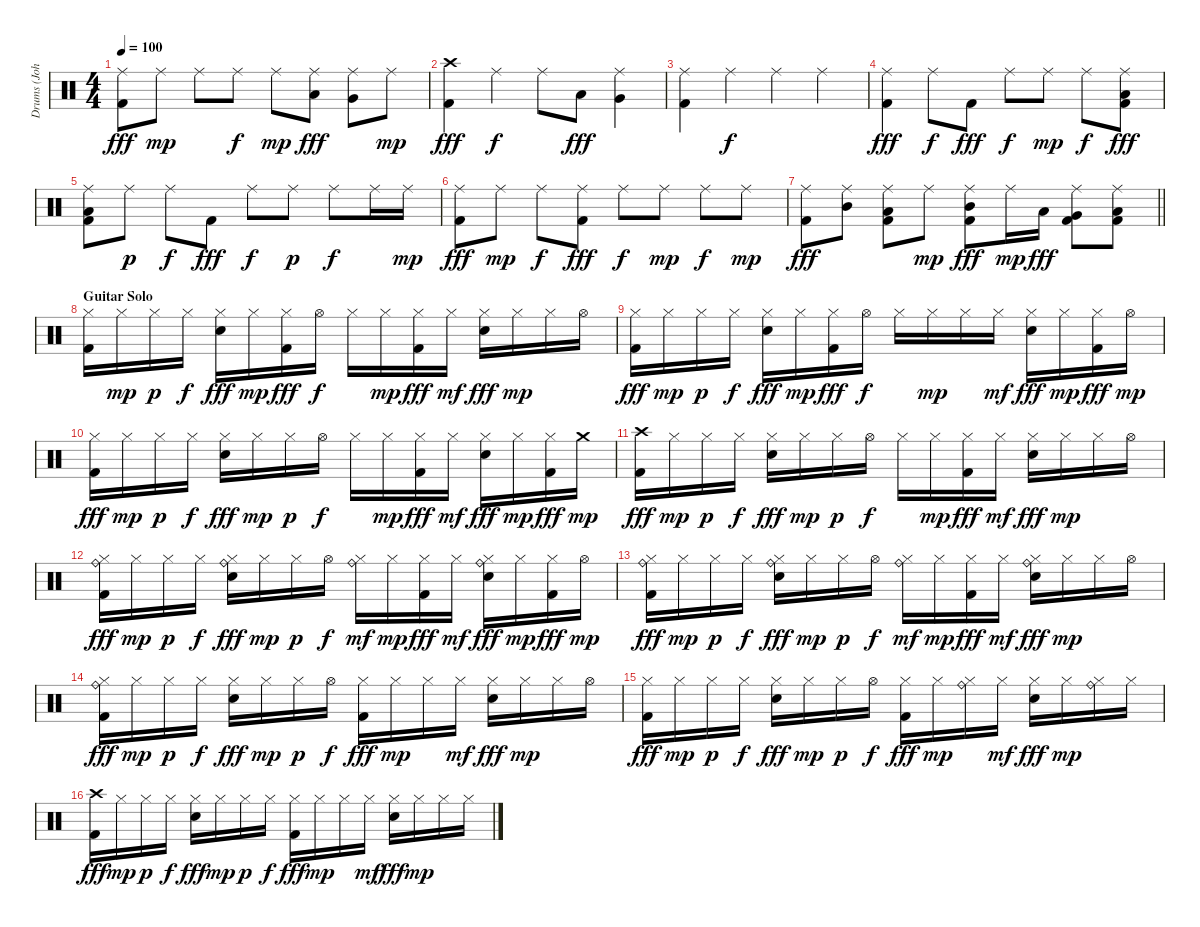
\track ("Drums (John Siomos)" "Drums (Joh") {instrument percussion}
\staff {score}
\articulation defaults
\ts (4 4)
\tempo 100
\clef neutral
\ks c
("Ride (middle)" "Kick (hit) 2").8{dy fff} "Ride (middle)".8{dy mp} "Ride (middle)".8 "Ride (middle)".8{dy f} "Ride (middle)".8{dy mp} ("Ride (middle)" "Low Tom (hit)").8{dy fff} ("Ride (middle)" "Very Low Tom (hit)").8 "Ride (middle)".8{dy mp} |
("Crash high (hit)" "Kick (hit) 2").4{dy fff} "Ride (middle)".4{dy f} "Ride (middle)".8 "Low Tom (hit)".8{dy fff} ("Ride (middle)" "Very Low Tom (hit)").4 |
("Ride (middle)" "Kick (hit) 2").4 "Ride (middle)".4{dy f} "Ride (middle)".4 "Ride (middle)".4 |
("Ride (middle)" "Kick (hit) 2").4{dy fff} "Ride (middle)".8{dy f} "Kick (hit) 2".8{dy fff} "Ride (middle)".8{dy f} "Ride (middle)".8{dy mp} "Ride (middle)".8{dy f} ("Ride (middle)" "Low Tom (hit)" "Kick (hit) 2").8{dy fff} |
("Ride (middle)" "Low Tom (hit)" "Kick (hit) 2").8 "Ride (middle)".8{dy p} "Ride (middle)".8{dy f} "Kick (hit) 2".8{dy fff} "Ride (middle)".8{dy f} "Ride (middle)".8{dy p} "Ride (middle)".8{dy f} "Ride (middle)".16 "Ride (middle)".16{dy mp} |
("Ride (middle)" "Kick (hit) 2").8{dy fff} "Ride (middle)".8{dy mp} "Ride (middle)".8{dy f} ("Ride (middle)" "Kick (hit) 2").8{dy fff} "Ride (middle)".8{dy f} "Ride (middle)".8{dy mp} "Ride (middle)".8{dy f} "Ride (middle)".8{dy mp} |
\barLineRight lightlight
("Ride (middle)" "Kick (hit) 2").8{dy fff} ("Ride (middle)" "Mid Tom (hit)").8 ("Ride (middle)" "Low Tom (hit)" "Kick (hit) 2").8 "Ride (middle)".8{dy mp} ("Ride (middle)" "Mid Tom (hit)" "Kick (hit) 2").8{dy fff} "Ride (middle)".16{dy mp} "Low Tom (hit)".16{dy fff} ("Ride (middle)" "Very Low Tom (hit)" "Kick (hit) 2").8 ("Ride (middle)" "Low Floor Tom (hit)" "Kick (hit) 2").8 |
\section ("" "Guitar Solo")
("Hi-Hat (closed)" "Kick (hit) 2").16 "Hi-Hat (closed)".16{dy mp} "Hi-Hat (closed)".16{dy p} "Hi-Hat (closed)".16{dy f} ("Hi-Hat (closed)" "Snare (hit) 2").16{dy fff} "Hi-Hat (closed)".16{dy mp} ("Hi-Hat (closed)" "Kick (hit) 2").16{dy fff} "Hi-Hat (open)".16{dy f} "Hi-Hat (closed)".16 "Hi-Hat (closed)".16{dy mp} ("Hi-Hat (closed)" "Kick (hit) 2").16{dy fff} "Hi-Hat (closed)".16{dy mf} ("Hi-Hat (closed)" "Snare (hit) 2").16{dy fff} "Hi-Hat (closed)".16{dy mp} "Hi-Hat (closed)".16 "Hi-Hat (open)".16 |
("Hi-Hat (closed)" "Kick (hit) 2").16{dy fff} "Hi-Hat (closed)".16{dy mp} "Hi-Hat (closed)".16{dy p} "Hi-Hat (closed)".16{dy f} ("Hi-Hat (closed)" "Snare (hit) 2").16{dy fff} "Hi-Hat (closed)".16{dy mp} ("Hi-Hat (closed)" "Kick (hit) 2").16{dy fff} "Hi-Hat (open)".16{dy f} "Hi-Hat (closed)".16 "Hi-Hat (closed)".16{dy mp} "Hi-Hat (closed)".16 "Hi-Hat (closed)".16{dy mf} ("Hi-Hat (closed)" "Snare (hit) 2").16{dy fff} "Hi-Hat (closed)".16{dy mp} ("Hi-Hat (closed)" "Kick (hit) 2").16{dy fff} "Hi-Hat (open)".16{dy mp} |
("Hi-Hat (closed)" "Kick (hit) 2").16{dy fff} "Hi-Hat (closed)".16{dy mp} "Hi-Hat (closed)".16{dy p} "Hi-Hat (closed)".16{dy f} ("Hi-Hat (closed)" "Snare (hit) 2").16{dy fff} "Hi-Hat (closed)".16{dy mp} "Hi-Hat (closed)".16{dy p} "Hi-Hat (open)".16{dy f} "Hi-Hat (closed)".16 "Hi-Hat (closed)".16{dy mp} ("Hi-Hat (closed)" "Kick (hit) 2").16{dy fff} "Hi-Hat (closed)".16{dy mf} ("Hi-Hat (closed)" "Snare (hit) 2").16{dy fff} "Hi-Hat (closed)".16{dy mp} ("Hi-Hat (closed)" "Kick (hit) 2").16{dy fff} "Crash medium (hit)".16{dy mp} |
("Crash high (hit)" "Kick (hit) 2").16{dy fff} "Hi-Hat (closed)".16{dy mp} "Hi-Hat (closed)".16{dy p} "Hi-Hat (closed)".16{dy f} ("Hi-Hat (closed)" "Snare (hit) 2").16{dy fff} "Hi-Hat (closed)".16{dy mp} "Hi-Hat (closed)".16{dy p} "Hi-Hat (open)".16{dy f} "Hi-Hat (closed)".16 "Hi-Hat (closed)".16{dy mp} ("Hi-Hat (closed)" "Kick (hit) 2").16{dy fff} "Hi-Hat (closed)".16{dy mf} ("Hi-Hat (closed)" "Snare (hit) 2").16{dy fff} "Hi-Hat (closed)".16{dy mp} "Hi-Hat (closed)".16 "Hi-Hat (open)".16 |
("Ride (bell)" "Hi-Hat (closed)" "Kick (hit) 2").16{dy fff} "Hi-Hat (closed)".16{dy mp} "Hi-Hat (closed)".16{dy p} "Hi-Hat (closed)".16{dy f} ("Ride (bell)" "Hi-Hat (closed)" "Snare (hit) 2").16{dy fff} "Hi-Hat (closed)".16{dy mp} "Hi-Hat (closed)".16{dy p} "Hi-Hat (open)".16{dy f} ("Ride (bell)" "Hi-Hat (closed)").16{dy mf} "Hi-Hat (closed)".16{dy mp} ("Hi-Hat (closed)" "Kick (hit) 2").16{dy fff} "Hi-Hat (closed)".16{dy mf} ("Ride (bell)" "Hi-Hat (closed)" "Snare (hit) 2").16{dy fff} "Hi-Hat (closed)".16{dy mp} ("Hi-Hat (closed)" "Kick (hit) 2").16{dy fff} "Hi-Hat (open)".16{dy mp} |
("Ride (bell)" "Hi-Hat (closed)" "Kick (hit) 2").16{dy fff} "Hi-Hat (closed)".16{dy mp} "Hi-Hat (closed)".16{dy p} "Hi-Hat (closed)".16{dy f} ("Ride (bell)" "Hi-Hat (closed)" "Snare (hit) 2").16{dy fff} "Hi-Hat (closed)".16{dy mp} "Hi-Hat (closed)".16{dy p} "Hi-Hat (open)".16{dy f} ("Ride (bell)" "Hi-Hat (closed)").16{dy mf} "Hi-Hat (closed)".16{dy mp} ("Hi-Hat (closed)" "Kick (hit) 2").16{dy fff} "Hi-Hat (closed)".16{dy mf} ("Ride (bell)" "Hi-Hat (closed)" "Snare (hit) 2").16{dy fff} "Hi-Hat (closed)".16{dy mp} "Hi-Hat (closed)".16 "Hi-Hat (open)".16 |
("Ride (bell)" "Hi-Hat (closed)" "Kick (hit) 2").16{dy fff} "Hi-Hat (closed)".16{dy mp} "Hi-Hat (closed)".16{dy p} "Hi-Hat (closed)".16{dy f} ("Hi-Hat (closed)" "Snare (hit) 2").16{dy fff} "Hi-Hat (closed)".16{dy mp} "Hi-Hat (closed)".16{dy p} "Hi-Hat (open)".16{dy f} ("Hi-Hat (closed)" "Kick (hit) 2").16{dy fff} "Hi-Hat (closed)".16{dy mp} "Hi-Hat (closed)".16 "Hi-Hat (closed)".16{dy mf} ("Hi-Hat (closed)" "Snare (hit) 2").16{dy fff} "Hi-Hat (closed)".16{dy mp} "Hi-Hat (closed)".16 "Hi-Hat (open)".16 |
("Hi-Hat (closed)" "Kick (hit) 2").16{dy fff} "Hi-Hat (closed)".16{dy mp} "Hi-Hat (closed)".16{dy p} "Hi-Hat (closed)".16{dy f} ("Hi-Hat (closed)" "Snare (hit) 2").16{dy fff} "Hi-Hat (closed)".16{dy mp} "Hi-Hat (closed)".16{dy p} "Hi-Hat (open)".16{dy f} ("Hi-Hat (closed)" "Kick (hit) 2").16{dy fff} "Hi-Hat (closed)".16{dy mp} ("Ride (bell)" "Hi-Hat (closed)").16 "Hi-Hat (closed)".16{dy mf} ("Hi-Hat (closed)" "Snare (hit) 2").16{dy fff} "Hi-Hat (closed)".16{dy mp} ("Ride (bell)" "Hi-Hat (closed)").16 "Hi-Hat (closed)".16 |
("Crash high (hit)" "Kick (hit) 2").16{dy fff} "Hi-Hat (closed)".16{dy mp} "Hi-Hat (closed)".16{dy p} "Hi-Hat (closed)".16{dy f} ("Hi-Hat (closed)" "Snare (hit) 2").16{dy fff} "Hi-Hat (closed)".16{dy mp} "Hi-Hat (closed)".16{dy p} "Hi-Hat (closed)".16{dy f} ("Hi-Hat (closed)" "Kick (hit) 2").16{dy fff} "Hi-Hat (closed)".16{dy mp} "Hi-Hat (closed)".16 "Hi-Hat (closed)".16{dy mf} ("Hi-Hat (closed)" "Snare (hit) 2").16{dy fff} "Hi-Hat (closed)".16{dy mp} "Hi-Hat (closed)".16 "Hi-Hat (closed)".16
